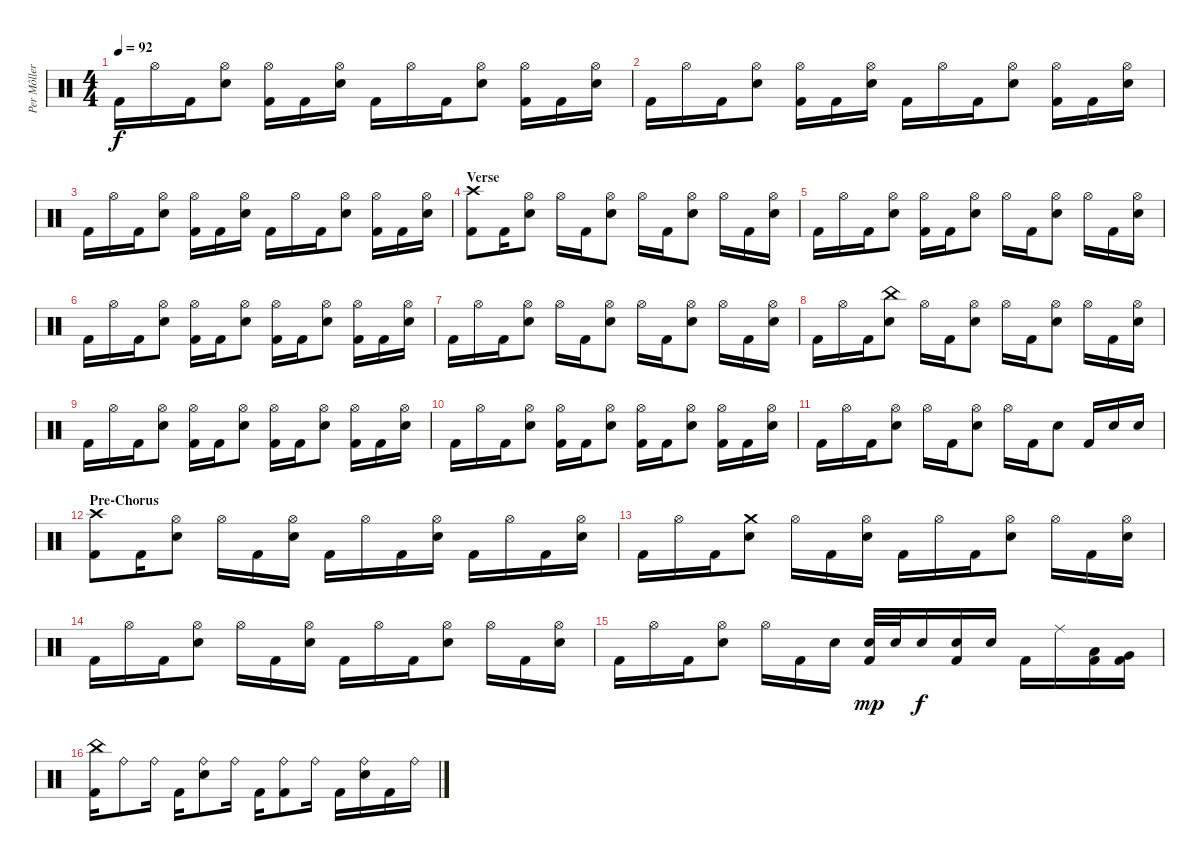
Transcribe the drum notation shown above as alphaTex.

\track ("Per Môller Jensen" "Per Môller") {instrument percussion}
\staff {score}
\articulation defaults
\ts (4 4)
\tempo 92
\clef neutral
\ks c "Kick (hit) 2".16{dy f} "Hi-Hat (open)".16 "Kick (hit) 2".16
("Electric Snare (hit)" "Hi-Hat (open)").8 ("Kick (hit) 2" "Hi-Hat (open)").16 "Kick (hit) 2".16 ("Electric Snare (hit)" "Hi-Hat (open)").16 "Kick (hit) 2".16 "Hi-Hat (open)".16 "Kick (hit) 2".16 ("Electric Snare (hit)" "Hi-Hat (open)").8 ("Kick (hit) 2" "Hi-Hat (open)").16 "Kick (hit) 2".16 ("Electric Snare (hit)" "Hi-Hat (open)").16 |
"Kick (hit) 2".16 "Hi-Hat (open)".16 "Kick (hit) 2".16 ("Electric Snare (hit)" "Hi-Hat (open)").8 ("Kick (hit) 2" "Hi-Hat (open)").16 "Kick (hit) 2".16 ("Electric Snare (hit)" "Hi-Hat (open)").16 "Kick (hit) 2".16 "Hi-Hat (open)".16 "Kick (hit) 2".16 ("Electric Snare (hit)" "Hi-Hat (open)").8 ("Kick (hit) 2" "Hi-Hat (open)").16 "Kick (hit) 2".16 ("Electric Snare (hit)" "Hi-Hat (open)").16 |
"Kick (hit) 2".16 "Hi-Hat (open)".16 "Kick (hit) 2".16 ("Electric Snare (hit)" "Hi-Hat (open)").8 ("Kick (hit) 2" "Hi-Hat (open)").16 "Kick (hit) 2".16 ("Electric Snare (hit)" "Hi-Hat (open)").16 "Kick (hit) 2".16 "Hi-Hat (open)".16 "Kick (hit) 2".16 ("Electric Snare (hit)" "Hi-Hat (open)").8 ("Kick (hit) 2" "Hi-Hat (open)").16 "Kick (hit) 2".16 ("Electric Snare (hit)" "Hi-Hat (open)").16 |
\section ("" "Verse")
("Kick (hit) 2" "Crash high (hit)").8 "Kick (hit) 2".16 ("Electric Snare (hit)" "Hi-Hat (open)").8 "Hi-Hat (open)".16 "Kick (hit) 2".16 ("Electric Snare (hit)" "Hi-Hat (open)").8 "Hi-Hat (open)".16 "Kick (hit) 2".16 ("Electric Snare (hit)" "Hi-Hat (open)").8 "Hi-Hat (open)".16 "Kick (hit) 2".16 ("Electric Snare (hit)" "Hi-Hat (open)").16 |
"Kick (hit) 2".16 "Hi-Hat (open)".16 "Kick (hit) 2".16 ("Electric Snare (hit)" "Hi-Hat (open)").8 ("Kick (hit) 2" "Hi-Hat (open)").16 "Kick (hit) 2".16 ("Electric Snare (hit)" "Hi-Hat (open)").8 "Hi-Hat (open)".16 "Kick (hit) 2".16 ("Electric Snare (hit)" "Hi-Hat (open)").8 "Hi-Hat (open)".16 "Kick (hit) 2".16 ("Electric Snare (hit)" "Hi-Hat (open)").16 |
"Kick (hit) 2".16 "Hi-Hat (open)".16 "Kick (hit) 2".16 ("Electric Snare (hit)" "Hi-Hat (open)").8 ("Kick (hit) 2" "Hi-Hat (open)").16 "Kick (hit) 2".16 ("Electric Snare (hit)" "Hi-Hat (open)").8 ("Kick (hit) 2" "Hi-Hat (open)").16 "Kick (hit) 2".16 ("Electric Snare (hit)" "Hi-Hat (open)").8 ("Kick (hit) 2" "Hi-Hat (open)").16 "Kick (hit) 2".16 ("Electric Snare (hit)" "Hi-Hat (open)").16 |
"Kick (hit) 2".16 "Hi-Hat (open)".16 "Kick (hit) 2".16 ("Electric Snare (hit)" "Hi-Hat (open)").8 "Hi-Hat (open)".16 "Kick (hit) 2".16 ("Electric Snare (hit)" "Hi-Hat (open)").8 "Hi-Hat (open)".16 "Kick (hit) 2".16 ("Electric Snare (hit)" "Hi-Hat (open)").8 "Hi-Hat (open)".16 "Kick (hit) 2".16 ("Electric Snare (hit)" "Hi-Hat (open)").16 |
"Kick (hit) 2".16 "Hi-Hat (open)".16 "Kick (hit) 2".16 ("Electric Snare (hit)" "China (hit)").8 "Hi-Hat (open)".16 "Kick (hit) 2".16 ("Electric Snare (hit)" "Hi-Hat (open)").8 "Hi-Hat (open)".16 "Kick (hit) 2".16 ("Electric Snare (hit)" "Hi-Hat (open)").8 "Hi-Hat (open)".16 "Kick (hit) 2".16 ("Electric Snare (hit)" "Hi-Hat (open)").16 |
"Kick (hit) 2".16 "Hi-Hat (open)".16 "Kick (hit) 2".16 ("Electric Snare (hit)" "Hi-Hat (open)").8 ("Kick (hit) 2" "Hi-Hat (open)").16 "Kick (hit) 2".16 ("Electric Snare (hit)" "Hi-Hat (open)").8 ("Kick (hit) 2" "Hi-Hat (open)").16 "Kick (hit) 2".16 ("Electric Snare (hit)" "Hi-Hat (open)").8 ("Kick (hit) 2" "Hi-Hat (open)").16 "Kick (hit) 2".16 ("Electric Snare (hit)" "Hi-Hat (open)").16 |
"Kick (hit) 2".16 "Hi-Hat (open)".16 "Kick (hit) 2".16 ("Electric Snare (hit)" "Hi-Hat (open)").8 ("Kick (hit) 2" "Hi-Hat (open)").16 "Kick (hit) 2".16 ("Electric Snare (hit)" "Hi-Hat (open)").8 ("Kick (hit) 2" "Hi-Hat (open)").16 "Kick (hit) 2".16 ("Electric Snare (hit)" "Hi-Hat (open)").8 ("Kick (hit) 2" "Hi-Hat (open)").16 "Kick (hit) 2".16 ("Electric Snare (hit)" "Hi-Hat (open)").16 |
"Kick (hit) 2".16 "Hi-Hat (open)".16 "Kick (hit) 2".16 ("Electric Snare (hit)" "Hi-Hat (open)").8 "Hi-Hat (open)".16 "Kick (hit) 2".16 ("Electric Snare (hit)" "Hi-Hat (open)").8 "Hi-Hat (open)".16 "Kick (hit) 2".16 "Electric Snare (hit)".8 "Kick (hit) 2".16 "Electric Snare (hit)".16 "Electric Snare (hit)".16 |
\section ("" "Pre-Chorus")
("Kick (hit) 2" "Crash high (hit)").8 "Kick (hit) 2".16 ("Electric Snare (hit)" "Hi-Hat (open)").8 "Hi-Hat (open)".16 "Kick (hit) 2".16 ("Electric Snare (hit)" "Hi-Hat (open)").16 "Kick (hit) 2".16 "Hi-Hat (open)".16 "Kick (hit) 2".16 ("Electric Snare (hit)" "Hi-Hat (open)").16 "Kick (hit) 2".16 "Hi-Hat (open)".16 "Kick (hit) 2".16 ("Electric Snare (hit)" "Hi-Hat (open)").16 |
"Kick (hit) 2".16 "Hi-Hat (open)".16 "Kick (hit) 2".16 ("Electric Snare (hit)" "Crash medium (hit)").8 "Hi-Hat (open)".16 "Kick (hit) 2".16 ("Electric Snare (hit)" "Hi-Hat (open)").16 "Kick (hit) 2".16 "Hi-Hat (open)".16 "Kick (hit) 2".16 ("Electric Snare (hit)" "Hi-Hat (open)").8 "Hi-Hat (open)".16 "Kick (hit) 2".16 ("Electric Snare (hit)" "Hi-Hat (open)").16 |
"Kick (hit) 2".16 "Hi-Hat (open)".16 "Kick (hit) 2".16 ("Electric Snare (hit)" "Hi-Hat (open)").8 "Hi-Hat (open)".16 "Kick (hit) 2".16 ("Electric Snare (hit)" "Hi-Hat (open)").16 "Kick (hit) 2".16 "Hi-Hat (open)".16 "Kick (hit) 2".16 ("Electric Snare (hit)" "Hi-Hat (open)").8 "Hi-Hat (open)".16 "Kick (hit) 2".16 ("Electric Snare (hit)" "Hi-Hat (open)").16 |
"Kick (hit) 2".16 "Hi-Hat (open)".16 "Kick (hit) 2".16 ("Electric Snare (hit)" "Hi-Hat (open)").8 "Hi-Hat (open)".16 "Kick (hit) 2".16 "Electric Snare (hit)".16 ("Electric Snare (hit)" "Kick (hit) 2").32{dy mp} "Electric Snare (hit)".32 "Electric Snare (hit)".16{dy f} ("Electric Snare (hit)" "Kick (hit) 2").16 "Electric Snare (hit)".16 "Kick (hit) 2".16 "Ride (middle)".16 ("Kick (hit) 2" "Low Tom (hit)").16 ("Kick (hit) 2" "Very Low Tom (hit)").16 |
("Kick (hit) 2" "China (hit)").16 "Ride (bell)".8 "Ride (bell)".16 "Kick (hit) 2".16 ("Electric Snare (hit)" "Ride (bell)").8 "Ride (bell)".16 "Kick (hit) 2".16 ("Kick (hit) 2" "Ride (bell)").8 "Ride (bell)".16 "Kick (hit) 2".16 ("Electric Snare (hit)" "Ride (bell)").16 "Kick (hit) 2".16 "Ride (bell)".16
